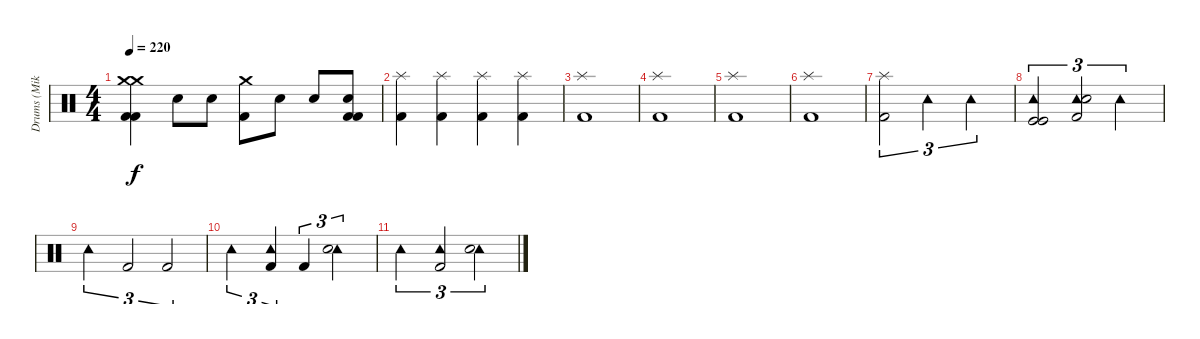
\track ("Drums (Mike Justian)" "Drums (Mik") {instrument percussion}
\staff {score}
\articulation defaults
\ts (4 4)
\tempo 220
\clef neutral
\ks c
("Crash medium (hit)" "Kick (hit) 2" "Crash medium (hit)" "Kick (hit) 2").4{dy f} "Electric Snare (hit)".8 "Electric Snare (hit)".8 ("Crash medium (hit)" "Kick (hit) 2").8 "Electric Snare (hit)".8 "Electric Snare (hit)".8 ("Electric Snare (hit)" "Kick (hit) 2" "Kick (hit) 2").8 |
("Splash (hit)" "Kick (hit) 2").4 ("Splash (hit)" "Kick (hit) 2").4 ("Splash (hit)" "Kick (hit) 2").4 ("Splash (hit)" "Kick (hit) 2").4 |
("Splash (hit)" "Kick (hit) 2").1 |
("Splash (hit)" "Kick (hit) 2").1 |
("Splash (hit)" "Kick (hit) 2").1 |
("Splash (hit)" "Kick (hit) 2").1 |
("Splash (hit)" "Kick (hit) 2").2{tu (3 2)} "Tambourine (hit)".2{tu (3 2)} "Tambourine (hit)".2{tu (3 2)} |
("Tambourine (hit)" "Kick (hit)" "Kick (hit)").2{tu (3 2)} ("Tambourine (hit)" "Kick (hit) 2" "Electric Snare (hit)").2{tu (3 2)} "Tambourine (hit)".2{tu (3 2)} |
"Tambourine (hit)".2{tu (3 2)} "Kick (hit) 2".2{tu (3 2)} "Kick (hit) 2".2{tu (3 2)} |
"Tambourine (hit)".2{tu (3 2)} ("Tambourine (hit)" "Kick (hit) 2").4{tu (3 2)} "Kick (hit) 2".4{tu (3 2)} ("Tambourine (hit)" "Electric Snare (hit)").2{tu (3 2)} |
"Tambourine (hit)".2{tu (3 2)} ("Tambourine (hit)" "Kick (hit) 2").2{tu (3 2)} ("Tambourine (hit)" "Electric Snare (hit)").2{tu (3 2)}
